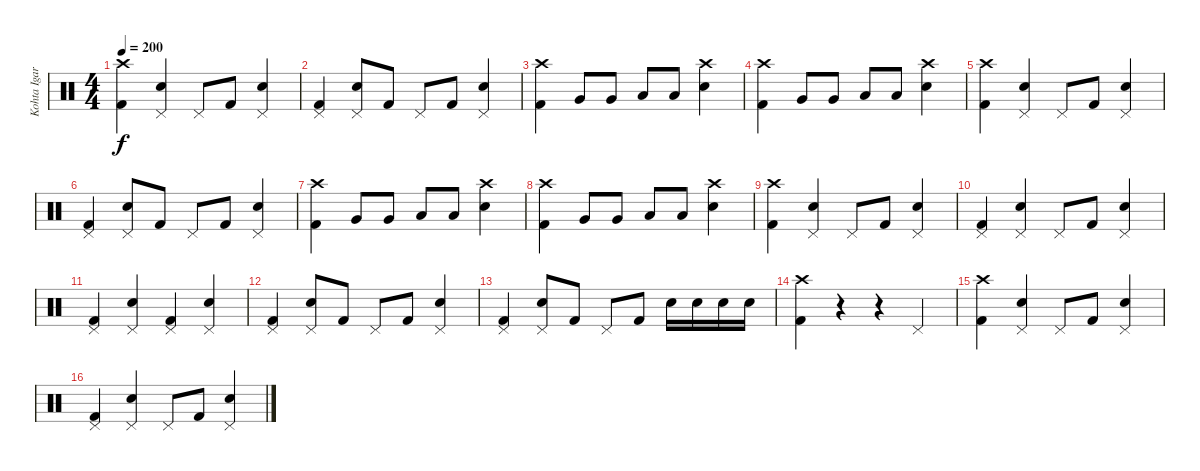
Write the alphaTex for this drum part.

\track ("Kohta Igarashi" "Kohta Igar") {instrument percussion}
\staff {score}
\articulation defaults
\ts (4 4)
\tempo 200
\clef neutral
\ks c
("Crash high (hit)" "Kick (hit) 2").4{dy f} ("Pedal Hi-Hat (hit)" "Electric Snare (hit)").4 "Pedal Hi-Hat (hit)".8 "Kick (hit) 2".8 ("Pedal Hi-Hat (hit)" "Electric Snare (hit)").4 |
("Pedal Hi-Hat (hit)" "Kick (hit) 2").4 ("Pedal Hi-Hat (hit)" "Electric Snare (hit)").8 "Kick (hit) 2".8 "Pedal Hi-Hat (hit)".8 "Kick (hit) 2".8 ("Pedal Hi-Hat (hit)" "Electric Snare (hit)").4 |
("Crash high (hit)" "Kick (hit) 2").4 "Very Low Tom (hit)".8 "Very Low Tom (hit)".8 "Low Floor Tom (hit)".8 "Low Floor Tom (hit)".8 ("Crash high (hit)" "Electric Snare (hit)").4 |
("Crash high (hit)" "Kick (hit) 2").4 "Very Low Tom (hit)".8 "Very Low Tom (hit)".8 "Low Floor Tom (hit)".8 "Low Floor Tom (hit)".8 ("Crash high (hit)" "Electric Snare (hit)").4 |
("Crash high (hit)" "Kick (hit) 2").4 ("Pedal Hi-Hat (hit)" "Electric Snare (hit)").4 "Pedal Hi-Hat (hit)".8 "Kick (hit) 2".8 ("Pedal Hi-Hat (hit)" "Electric Snare (hit)").4 |
("Pedal Hi-Hat (hit)" "Kick (hit) 2").4 ("Pedal Hi-Hat (hit)" "Electric Snare (hit)").8 "Kick (hit) 2".8 "Pedal Hi-Hat (hit)".8 "Kick (hit) 2".8 ("Pedal Hi-Hat (hit)" "Electric Snare (hit)").4 |
("Crash high (hit)" "Kick (hit) 2").4 "Very Low Tom (hit)".8 "Very Low Tom (hit)".8 "Low Floor Tom (hit)".8 "Low Floor Tom (hit)".8 ("Crash high (hit)" "Electric Snare (hit)").4 |
("Crash high (hit)" "Kick (hit) 2").4 "Very Low Tom (hit)".8 "Very Low Tom (hit)".8 "Low Floor Tom (hit)".8 "Low Floor Tom (hit)".8 ("Crash high (hit)" "Electric Snare (hit)").4 |
("Crash high (hit)" "Kick (hit) 2").4 ("Pedal Hi-Hat (hit)" "Electric Snare (hit)").4 "Pedal Hi-Hat (hit)".8 "Kick (hit) 2".8 ("Pedal Hi-Hat (hit)" "Electric Snare (hit)").4 |
("Pedal Hi-Hat (hit)" "Kick (hit) 2").4 ("Pedal Hi-Hat (hit)" "Electric Snare (hit)").4 "Pedal Hi-Hat (hit)".8 "Kick (hit) 2".8 ("Pedal Hi-Hat (hit)" "Electric Snare (hit)").4 |
("Pedal Hi-Hat (hit)" "Kick (hit) 2").4 ("Pedal Hi-Hat (hit)" "Electric Snare (hit)").4 ("Pedal Hi-Hat (hit)" "Kick (hit) 2").4 ("Pedal Hi-Hat (hit)" "Electric Snare (hit)").4 |
("Pedal Hi-Hat (hit)" "Kick (hit) 2").4 ("Pedal Hi-Hat (hit)" "Electric Snare (hit)").8 "Kick (hit) 2".8 "Pedal Hi-Hat (hit)".8 "Kick (hit) 2".8 ("Pedal Hi-Hat (hit)" "Electric Snare (hit)").4 |
("Pedal Hi-Hat (hit)" "Kick (hit) 2").4 ("Pedal Hi-Hat (hit)" "Electric Snare (hit)").8 "Kick (hit) 2".8 "Pedal Hi-Hat (hit)".8 "Kick (hit) 2".8 "Electric Snare (hit)".16 "Electric Snare (hit)".16 "Electric Snare (hit)".16 "Electric Snare (hit)".16 |
("Crash high (hit)" "Kick (hit) 2").4 r.4 r.4 "Pedal Hi-Hat (hit)".4 |
("Crash high (hit)" "Kick (hit) 2").4 ("Pedal Hi-Hat (hit)" "Electric Snare (hit)").4 "Pedal Hi-Hat (hit)".8 "Kick (hit) 2".8 ("Pedal Hi-Hat (hit)" "Electric Snare (hit)").4 |
("Pedal Hi-Hat (hit)" "Kick (hit) 2").4 ("Pedal Hi-Hat (hit)" "Electric Snare (hit)").4 "Pedal Hi-Hat (hit)".8 "Kick (hit) 2".8 ("Pedal Hi-Hat (hit)" "Electric Snare (hit)").4
